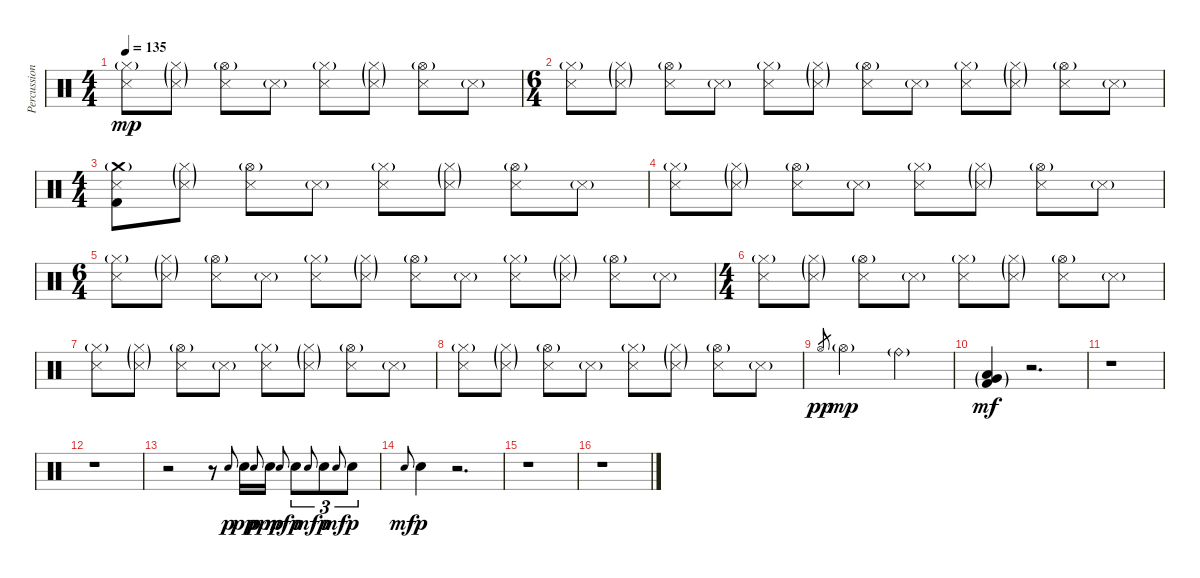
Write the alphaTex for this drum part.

\track ("Percussion" "Percussion") {instrument percussion}
\staff {score}
\articulation defaults
\ts (4 4)
\tempo 135
\clef neutral
\ks c
("Hi-Hat (closed)"{g} "Snare (side stick) 3").8{dy mp} ("Hi-Hat (closed)"{g} "Snare (side stick) 3"{g}).8 ("Hi-Hat (open)"{g} "Snare (side stick) 3").8 "Snare (side stick) 3"{g}.8 ("Hi-Hat (closed)"{g} "Snare (side stick) 3").8 ("Hi-Hat (closed)"{g} "Snare (side stick) 3"{g}).8 ("Hi-Hat (open)"{g} "Snare (side stick) 3").8 "Snare (side stick) 3"{g}.8 |
\ts (6 4)
("Hi-Hat (closed)"{g} "Snare (side stick) 3").8 ("Hi-Hat (closed)"{g} "Snare (side stick) 3"{g}).8 ("Hi-Hat (open)"{g} "Snare (side stick) 3").8 "Snare (side stick) 3"{g}.8 ("Hi-Hat (closed)"{g} "Snare (side stick) 3").8 ("Hi-Hat (closed)"{g} "Snare (side stick) 3"{g}).8 ("Hi-Hat (open)"{g} "Snare (side stick) 3").8 "Snare (side stick) 3"{g}.8 ("Hi-Hat (closed)"{g} "Snare (side stick) 3").8 ("Hi-Hat (closed)"{g} "Snare (side stick) 3"{g}).8 ("Hi-Hat (open)"{g} "Snare (side stick) 3").8 "Snare (side stick) 3"{g}.8 |
\ts (4 4)
("Crash medium (hit)"{g} "Snare (side stick) 3" "Kick (hit) 2").8 ("Hi-Hat (closed)"{g} "Snare (side stick) 3"{g}).8 ("Hi-Hat (open)"{g} "Snare (side stick) 3").8 "Snare (side stick) 3"{g}.8 ("Hi-Hat (closed)"{g} "Snare (side stick) 3").8 ("Hi-Hat (closed)"{g} "Snare (side stick) 3"{g}).8 ("Hi-Hat (open)"{g} "Snare (side stick) 3").8 "Snare (side stick) 3"{g}.8 |
("Hi-Hat (closed)"{g} "Snare (side stick) 3").8 ("Hi-Hat (closed)"{g} "Snare (side stick) 3"{g}).8 ("Hi-Hat (open)"{g} "Snare (side stick) 3").8 "Snare (side stick) 3"{g}.8 ("Hi-Hat (closed)"{g} "Snare (side stick) 3").8 ("Hi-Hat (closed)"{g} "Snare (side stick) 3"{g}).8 ("Hi-Hat (open)"{g} "Snare (side stick) 3").8 "Snare (side stick) 3"{g}.8 |
\ts (6 4)
("Hi-Hat (closed)"{g} "Snare (side stick) 3").8 ("Hi-Hat (closed)"{g} "Snare (side stick) 3"{g}).8 ("Hi-Hat (open)"{g} "Snare (side stick) 3").8 "Snare (side stick) 3"{g}.8 ("Hi-Hat (closed)"{g} "Snare (side stick) 3").8 ("Hi-Hat (closed)"{g} "Snare (side stick) 3"{g}).8 ("Hi-Hat (open)"{g} "Snare (side stick) 3").8 "Snare (side stick) 3"{g}.8 ("Hi-Hat (closed)"{g} "Snare (side stick) 3").8 ("Hi-Hat (closed)"{g} "Snare (side stick) 3"{g}).8 ("Hi-Hat (open)"{g} "Snare (side stick) 3").8 "Snare (side stick) 3"{g}.8 |
\ts (4 4)
("Hi-Hat (closed)"{g} "Snare (side stick) 3").8 ("Hi-Hat (closed)"{g} "Snare (side stick) 3"{g}).8 ("Hi-Hat (open)"{g} "Snare (side stick) 3").8 "Snare (side stick) 3"{g}.8 ("Hi-Hat (closed)"{g} "Snare (side stick) 3").8 ("Hi-Hat (closed)"{g} "Snare (side stick) 3"{g}).8 ("Hi-Hat (open)"{g} "Snare (side stick) 3").8 "Snare (side stick) 3"{g}.8 |
("Hi-Hat (closed)"{g} "Snare (side stick) 3").8 ("Hi-Hat (closed)"{g} "Snare (side stick) 3"{g}).8 ("Hi-Hat (open)"{g} "Snare (side stick) 3").8 "Snare (side stick) 3"{g}.8 ("Hi-Hat (closed)"{g} "Snare (side stick) 3").8 ("Hi-Hat (closed)"{g} "Snare (side stick) 3"{g}).8 ("Hi-Hat (open)"{g} "Snare (side stick) 3").8 "Snare (side stick) 3"{g}.8 |
("Hi-Hat (closed)"{g} "Snare (side stick) 3").8 ("Hi-Hat (closed)"{g} "Snare (side stick) 3"{g}).8 ("Hi-Hat (open)"{g} "Snare (side stick) 3").8 "Snare (side stick) 3"{g}.8 ("Hi-Hat (closed)"{g} "Snare (side stick) 3").8 ("Hi-Hat (closed)"{g} "Snare (side stick) 3"{g}).8 ("Hi-Hat (open)"{g} "Snare (side stick) 3").8 "Snare (side stick) 3"{g}.8 |
"Hi-Hat (open)".8{gr dy pp} "Hi-Hat (open)"{g}.2{dy mp} "Ride (bell)"{g}.2 |
("Very Low Tom (hit)"{g} "Low Floor Tom (hit)"{g} "Kick (hit) 2"{g}).4{dy mf} r.2{d} |
r.1 |
r.1 |
r.2 r.8 "Electric Snare (hit)".8{gr onbeat dy p} "Electric Snare (hit)".16{dy pp} "Electric Snare (hit)".8{gr onbeat dy p} "Electric Snare (hit)".16{dy pp} "Electric Snare (hit)".8{gr onbeat dy mf} "Electric Snare (hit)".8{tu (3 2) dy p} "Electric Snare (hit)".8{gr onbeat dy mf} "Electric Snare (hit)".8{tu (3 2) dy p} "Electric Snare (hit)".8{gr onbeat dy mf} "Electric Snare (hit)".8{tu (3 2) dy p} |
"Electric Snare (hit)".8{gr onbeat dy mf} "Electric Snare (hit)".4{dy p} r.2{d} |
r.1 |
r.1
